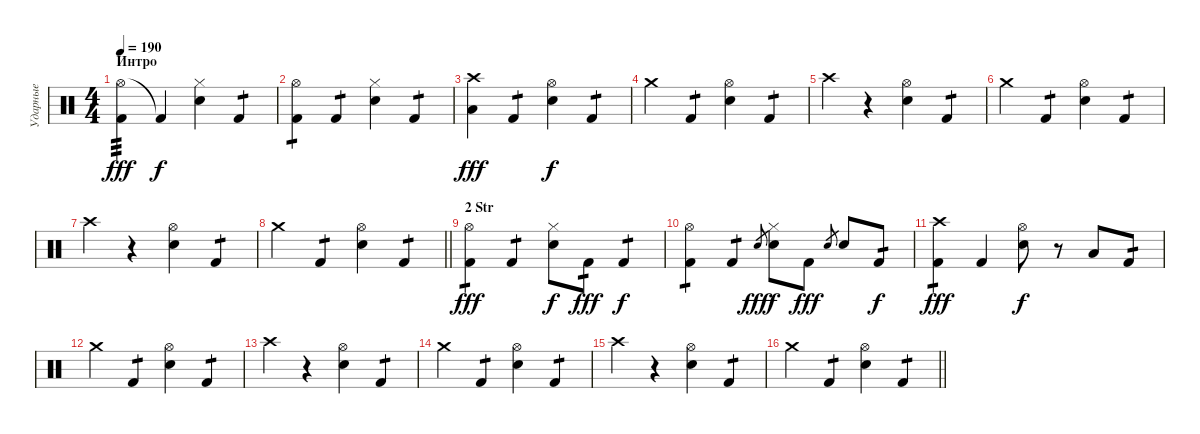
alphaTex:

\track ("Ударные" "Ударные") {instrument percussion}
\staff {score}
\articulation defaults
\ts (4 4)
\section ("" "Интро")
\tempo 190
\clef neutral
\ks c
("Hi-Hat (open)" "Kick (hit) 2").4{tp 3 dy fff} "Kick (hit) 2"{t}.4{dy f} ("Hi-Hat (closed)" "Snare (hit) 2").4 "Kick (hit) 2".4{tp 1} |
("Hi-Hat (open)" "Kick (hit) 2").4{tp 1} "Kick (hit) 2".4{tp 1} ("Hi-Hat (closed)" "Snare (hit) 2").4 "Kick (hit) 2".4{tp 1} |
("Crash high (hit)" "Low Floor Tom (hit)").4{dy fff} "Kick (hit) 2".4{tp 1} ("Hi-Hat (open)" "Snare (hit) 2").4{dy f} "Kick (hit) 2".4{tp 1} |
"Crash medium (hit)".4 "Kick (hit) 2".4{tp 1} ("Hi-Hat (open)" "Snare (hit) 2").4 "Kick (hit) 2".4{tp 1} |
"Crash high (hit)".4 r.4 ("Hi-Hat (open)" "Snare (hit) 2").4 "Kick (hit) 2".4{tp 1} |
"Crash medium (hit)".4 "Kick (hit) 2".4{tp 1} ("Hi-Hat (open)" "Snare (hit) 2").4 "Kick (hit) 2".4{tp 1} |
"Crash high (hit)".4 r.4 ("Hi-Hat (open)" "Snare (hit) 2").4 "Kick (hit) 2".4{tp 1} |
\barLineRight lightlight "Crash medium (hit)".4 "Kick (hit) 2".4{tp 1}
("Hi-Hat (open)" "Snare (hit) 2").4 "Kick (hit) 2".4{tp 1} |
\section ("" "2 Str")
("Hi-Hat (open)" "Kick (hit) 2").4{tp 1 dy fff} "Kick (hit) 2".4{tp 1} ("Hi-Hat (closed)" "Snare (hit) 2").8{dy f} "Kick (hit) 2".8{tp 1 dy fff} "Kick (hit) 2".4{tp 1 dy f} |
("Hi-Hat (open)" "Kick (hit) 2").4{tp 1} "Kick (hit) 2".4{tp 1} "Snare (hit) 2".8{gr dy fff} ("Hi-Hat (closed)" "Snare (hit) 2").8{dy f} "Kick (hit) 2".8{dy fff} "Snare (hit) 2".8{gr} "Snare (hit) 2".8 "Kick (hit) 2".8{tp 1 dy f} |
("Crash high (hit)" "Kick (hit) 2").4{tp 1 dy fff} "Kick (hit) 2".4 ("Hi-Hat (open)" "Snare (hit) 2").8{dy f} r.8 "Low Floor Tom (hit)".8 "Kick (hit) 2".8{tp 1} |
"Crash medium (hit)".4 "Kick (hit) 2".4{tp 1} ("Hi-Hat (open)" "Snare (hit) 2").4 "Kick (hit) 2".4{tp 1} |
"Crash high (hit)".4 r.4 ("Hi-Hat (open)" "Snare (hit) 2").4 "Kick (hit) 2".4{tp 1} |
"Crash medium (hit)".4 "Kick (hit) 2".4{tp 1} ("Hi-Hat (open)" "Snare (hit) 2").4 "Kick (hit) 2".4{tp 1} |
"Crash high (hit)".4 r.4 ("Hi-Hat (open)" "Snare (hit) 2").4 "Kick (hit) 2".4{tp 1} |
\barLineRight lightlight "Crash medium (hit)".4 "Kick (hit) 2".4{tp 1}
("Hi-Hat (open)" "Snare (hit) 2").4 "Kick (hit) 2".4{tp 1}
